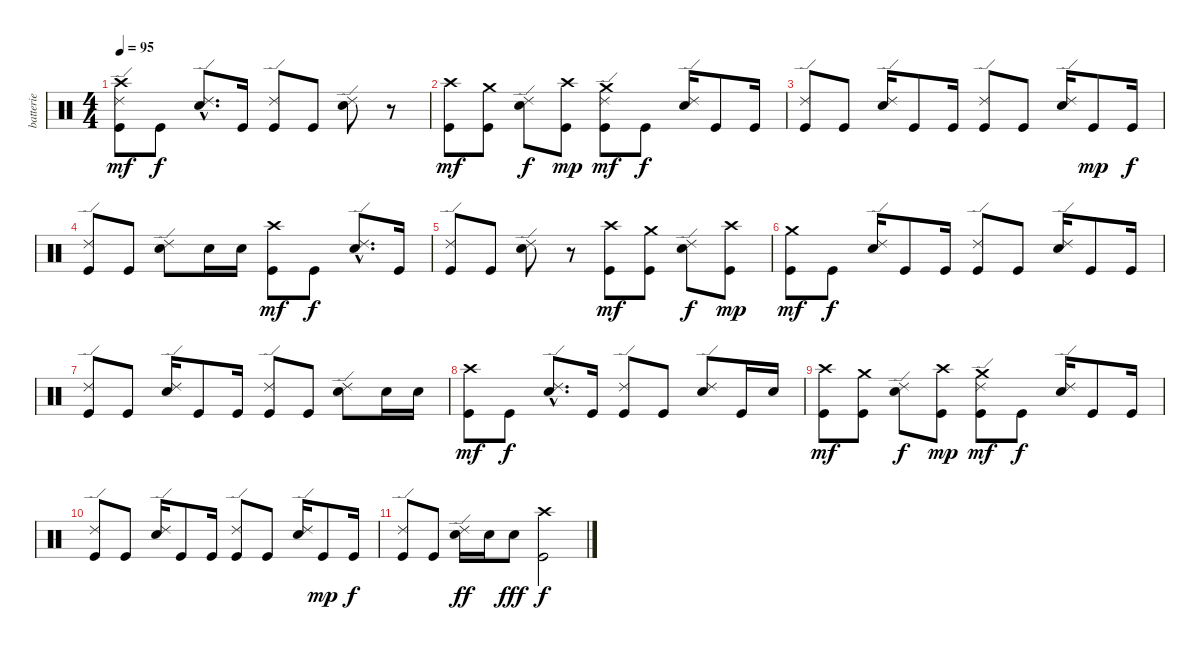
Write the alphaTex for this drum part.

\track ("batterie" "batterie") {instrument percussion}
\staff {score}
\articulation defaults
\ts (4 4)
\tempo 95
\clef neutral
\ks c
("Ride (edge) 2" "Kick (hit)" "Crash high (hit)").8{dy mf} "Kick (hit)".8{dy f} ("Ride (edge) 2"{hac} "Electric Snare (hit)"{hac}).8{d} "Kick (hit)".16 ("Ride (edge) 2" "Kick (hit)").8 "Kick (hit)".8 ("Ride (edge) 2" "Electric Snare (hit)").8 r.8 |
("Kick (hit)" "Crash high (hit)").8{dy mf} ("Kick (hit)" "Crash medium (hit)").8 ("Ride (edge) 2" "Electric Snare (hit)").8{dy f} ("Kick (hit)" "Crash high (hit)").8{dy mp} ("Ride (edge) 2" "Kick (hit)" "Crash medium (hit)").8{dy mf} "Kick (hit)".8{dy f} ("Ride (edge) 2" "Electric Snare (hit)").16 "Kick (hit)".8 "Kick (hit)".16 |
("Ride (edge) 2" "Kick (hit)").8 "Kick (hit)".8 ("Ride (edge) 2" "Electric Snare (hit)").16 "Kick (hit)".8 "Kick (hit)".16 ("Ride (edge) 2" "Kick (hit)").8 "Kick (hit)".8 ("Ride (edge) 2" "Electric Snare (hit)").16 "Kick (hit)".8{dy mp} "Kick (hit)".16{dy f} |
("Ride (edge) 2" "Kick (hit)").8 "Kick (hit)".8 ("Ride (edge) 2" "Electric Snare (hit)").8 "Electric Snare (hit)".16 "Electric Snare (hit)".16 ("Kick (hit)" "Crash high (hit)").8{dy mf} "Kick (hit)".8{dy f} ("Ride (edge) 2"{hac} "Electric Snare (hit)"{hac}).8{d} "Kick (hit)".16 |
("Ride (edge) 2" "Kick (hit)").8 "Kick (hit)".8 ("Ride (edge) 2" "Electric Snare (hit)").8 r.8 ("Kick (hit)" "Crash high (hit)").8{dy mf} ("Kick (hit)" "Crash medium (hit)").8 ("Ride (edge) 2" "Electric Snare (hit)").8{dy f} ("Kick (hit)" "Crash high (hit)").8{dy mp} |
("Kick (hit)" "Crash medium (hit)").8{dy mf} "Kick (hit)".8{dy f} ("Ride (edge) 2" "Electric Snare (hit)").16 "Kick (hit)".8 "Kick (hit)".16 ("Ride (edge) 2" "Kick (hit)").8 "Kick (hit)".8 ("Ride (edge) 2" "Electric Snare (hit)").16 "Kick (hit)".8 "Kick (hit)".16 |
("Ride (edge) 2" "Kick (hit)").8 "Kick (hit)".8 ("Ride (edge) 2" "Electric Snare (hit)").16 "Kick (hit)".8 "Kick (hit)".16 ("Ride (edge) 2" "Kick (hit)").8 "Kick (hit)".8 ("Ride (edge) 2" "Electric Snare (hit)").8 "Electric Snare (hit)".16 "Electric Snare (hit)".16 |
("Kick (hit)" "Crash high (hit)").8{dy mf} "Kick (hit)".8{dy f} ("Ride (edge) 2"{hac} "Electric Snare (hit)"{hac}).8{d} "Kick (hit)".16 ("Ride (edge) 2" "Kick (hit)").8 "Kick (hit)".8 ("Ride (edge) 2" "Electric Snare (hit)").8 "Kick (hit)".16 "Electric Snare (hit)".16 |
("Kick (hit)" "Crash high (hit)").8{dy mf} ("Kick (hit)" "Crash medium (hit)").8 ("Ride (edge) 2" "Electric Snare (hit)").8{dy f} ("Kick (hit)" "Crash high (hit)").8{dy mp} ("Ride (edge) 2" "Kick (hit)" "Crash medium (hit)").8{dy mf} "Kick (hit)".8{dy f} ("Ride (edge) 2" "Electric Snare (hit)").16 "Kick (hit)".8 "Kick (hit)".16 |
("Ride (edge) 2" "Kick (hit)").8 "Kick (hit)".8 ("Ride (edge) 2" "Electric Snare (hit)").16 "Kick (hit)".8 "Kick (hit)".16 ("Ride (edge) 2" "Kick (hit)").8 "Kick (hit)".8 ("Ride (edge) 2" "Electric Snare (hit)").16 "Kick (hit)".8{dy mp} "Kick (hit)".16{dy f} |
("Ride (edge) 2" "Kick (hit)").8 "Kick (hit)".8 ("Ride (edge) 2" "Electric Snare (hit)").16{dy ff} "Electric Snare (hit)".16 "Electric Snare (hit)".8{dy fff} ("Kick (hit)" "Crash high (hit)").2{dy f}
